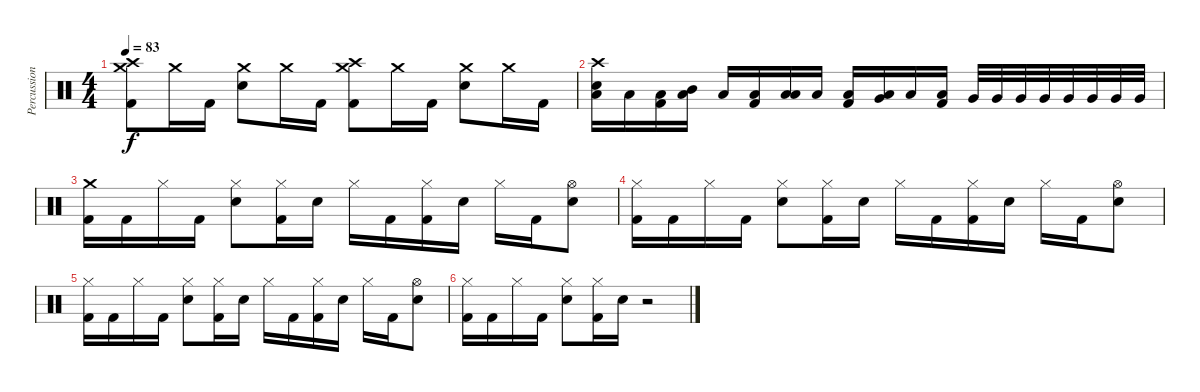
\track ("Percussion" "Percussion") {instrument percussion}
\staff {score}
\articulation defaults
\ts (4 4)
\tempo 83
\clef neutral
\ks c
("Crash medium (hit)" "Crash high (hit)" "Kick (hit) 2").8{dy f} "Crash medium (hit)".16 "Kick (hit) 2".16 ("Crash medium (hit)" "Electric Snare (hit)").8 "Crash medium (hit)".16 "Kick (hit) 2".16 ("Crash medium (hit)" "Crash high (hit)" "Kick (hit) 2").8 "Crash medium (hit)".16 "Kick (hit) 2".16 ("Crash medium (hit)" "Electric Snare (hit)").8 "Crash medium (hit)".16 "Kick (hit) 2".16 |
("Crash high (hit)" "Electric Snare (hit)" "Low Floor Tom (hit)").16 "Low Floor Tom (hit)".16 ("Low Floor Tom (hit)" "Kick (hit) 2").16 ("Mid Tom (hit)" "Low Floor Tom (hit)").16 "Low Floor Tom (hit)".16 ("Low Floor Tom (hit)" "Kick (hit) 2").16 ("Low Tom (hit)" "Low Floor Tom (hit)").16 "Low Floor Tom (hit)".16 ("Low Floor Tom (hit)" "Kick (hit) 2").16 ("Very Low Tom (hit)" "Low Floor Tom (hit)").16 "Low Floor Tom (hit)".16 ("Low Floor Tom (hit)" "Kick (hit) 2").16 "Very Low Tom (hit)".32 "Very Low Tom (hit)".32 "Very Low Tom (hit)".32 "Very Low Tom (hit)".32 "Very Low Tom (hit)".32 "Very Low Tom (hit)".32 "Very Low Tom (hit)".32 "Very Low Tom (hit)".32 |
("Crash medium (hit)" "Kick (hit) 2").16 "Kick (hit) 2".16 "Hi-Hat (closed)".16 "Kick (hit) 2".16 ("Hi-Hat (closed)" "Electric Snare (hit)").8 ("Hi-Hat (closed)" "Kick (hit) 2").16 "Electric Snare (hit)".16 "Hi-Hat (closed)".16 "Kick (hit) 2".16 ("Hi-Hat (closed)" "Kick (hit) 2").16 "Electric Snare (hit)".16 "Hi-Hat (closed)".16 "Kick (hit) 2".16 ("Hi-Hat (open)" "Electric Snare (hit)").8 |
("Hi-Hat (closed)" "Kick (hit) 2").16 "Kick (hit) 2".16 "Hi-Hat (closed)".16 "Kick (hit) 2".16 ("Hi-Hat (closed)" "Electric Snare (hit)").8 ("Hi-Hat (closed)" "Kick (hit) 2").16 "Electric Snare (hit)".16 "Hi-Hat (closed)".16 "Kick (hit) 2".16 ("Hi-Hat (closed)" "Kick (hit) 2").16 "Electric Snare (hit)".16 "Hi-Hat (closed)".16 "Kick (hit) 2".16 ("Hi-Hat (open)" "Electric Snare (hit)").8 |
("Hi-Hat (closed)" "Kick (hit) 2").16 "Kick (hit) 2".16 "Hi-Hat (closed)".16 "Kick (hit) 2".16 ("Hi-Hat (closed)" "Electric Snare (hit)").8 ("Hi-Hat (closed)" "Kick (hit) 2").16 "Electric Snare (hit)".16 "Hi-Hat (closed)".16 "Kick (hit) 2".16 ("Hi-Hat (closed)" "Kick (hit) 2").16 "Electric Snare (hit)".16 "Hi-Hat (closed)".16 "Kick (hit) 2".16 ("Hi-Hat (open)" "Electric Snare (hit)").8 |
("Hi-Hat (closed)" "Kick (hit) 2").16 "Kick (hit) 2".16 "Hi-Hat (closed)".16 "Kick (hit) 2".16 ("Hi-Hat (closed)" "Electric Snare (hit)").8 ("Hi-Hat (closed)" "Kick (hit) 2").16 "Electric Snare (hit)".16 r.2
